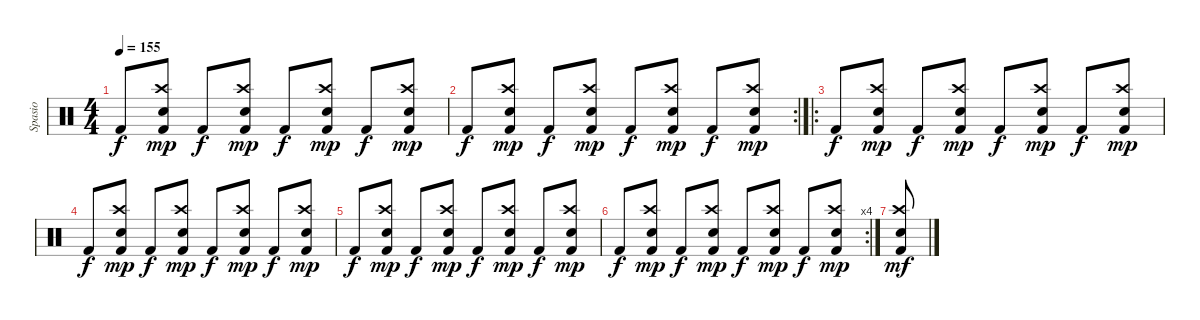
\track ("Spasio" "Spasio") {instrument percussion}
\staff {score}
\articulation defaults
\ts (4 4)
\tempo 155
\clef neutral
\ks c "Kick (hit) 2".8{dy f}
("Crash high (hit)" "Electric Snare (hit)" "Kick (hit) 2").8{dy mp} "Kick (hit) 2".8{dy f} ("Crash high (hit)" "Electric Snare (hit)" "Kick (hit) 2").8{dy mp} "Kick (hit) 2".8{dy f} ("Crash high (hit)" "Electric Snare (hit)" "Kick (hit) 2").8{dy mp} "Kick (hit) 2".8{dy f} ("Crash high (hit)" "Electric Snare (hit)" "Kick (hit) 2").8{dy mp} |
\rc 2 "Kick (hit) 2".8{dy f}
("Crash high (hit)" "Electric Snare (hit)" "Kick (hit) 2").8{dy mp} "Kick (hit) 2".8{dy f} ("Crash high (hit)" "Electric Snare (hit)" "Kick (hit) 2").8{dy mp} "Kick (hit) 2".8{dy f} ("Crash high (hit)" "Electric Snare (hit)" "Kick (hit) 2").8{dy mp} "Kick (hit) 2".8{dy f} ("Crash high (hit)" "Electric Snare (hit)" "Kick (hit) 2").8{dy mp} |
\ro "Kick (hit) 2".8{dy f}
("Crash high (hit)" "Electric Snare (hit)" "Kick (hit) 2").8{dy mp} "Kick (hit) 2".8{dy f} ("Crash high (hit)" "Electric Snare (hit)" "Kick (hit) 2").8{dy mp} "Kick (hit) 2".8{dy f} ("Crash high (hit)" "Electric Snare (hit)" "Kick (hit) 2").8{dy mp} "Kick (hit) 2".8{dy f} ("Crash high (hit)" "Electric Snare (hit)" "Kick (hit) 2").8{dy mp} |
"Kick (hit) 2".8{dy f} ("Crash high (hit)" "Electric Snare (hit)" "Kick (hit) 2").8{dy mp} "Kick (hit) 2".8{dy f} ("Crash high (hit)" "Electric Snare (hit)" "Kick (hit) 2").8{dy mp} "Kick (hit) 2".8{dy f} ("Crash high (hit)" "Electric Snare (hit)" "Kick (hit) 2").8{dy mp} "Kick (hit) 2".8{dy f} ("Crash high (hit)" "Electric Snare (hit)" "Kick (hit) 2").8{dy mp} |
"Kick (hit) 2".8{dy f} ("Crash high (hit)" "Electric Snare (hit)" "Kick (hit) 2").8{dy mp} "Kick (hit) 2".8{dy f} ("Crash high (hit)" "Electric Snare (hit)" "Kick (hit) 2").8{dy mp} "Kick (hit) 2".8{dy f} ("Crash high (hit)" "Electric Snare (hit)" "Kick (hit) 2").8{dy mp} "Kick (hit) 2".8{dy f} ("Crash high (hit)" "Electric Snare (hit)" "Kick (hit) 2").8{dy mp} |
\rc 4 "Kick (hit) 2".8{dy f}
("Crash high (hit)" "Electric Snare (hit)" "Kick (hit) 2").8{dy mp} "Kick (hit) 2".8{dy f} ("Crash high (hit)" "Electric Snare (hit)" "Kick (hit) 2").8{dy mp} "Kick (hit) 2".8{dy f} ("Crash high (hit)" "Electric Snare (hit)" "Kick (hit) 2").8{dy mp} "Kick (hit) 2".8{dy f} ("Crash high (hit)" "Electric Snare (hit)" "Kick (hit) 2").8{dy mp} |
("Crash high (hit)" "Electric Snare (hit)" "Kick (hit) 2").8{dy mf}
